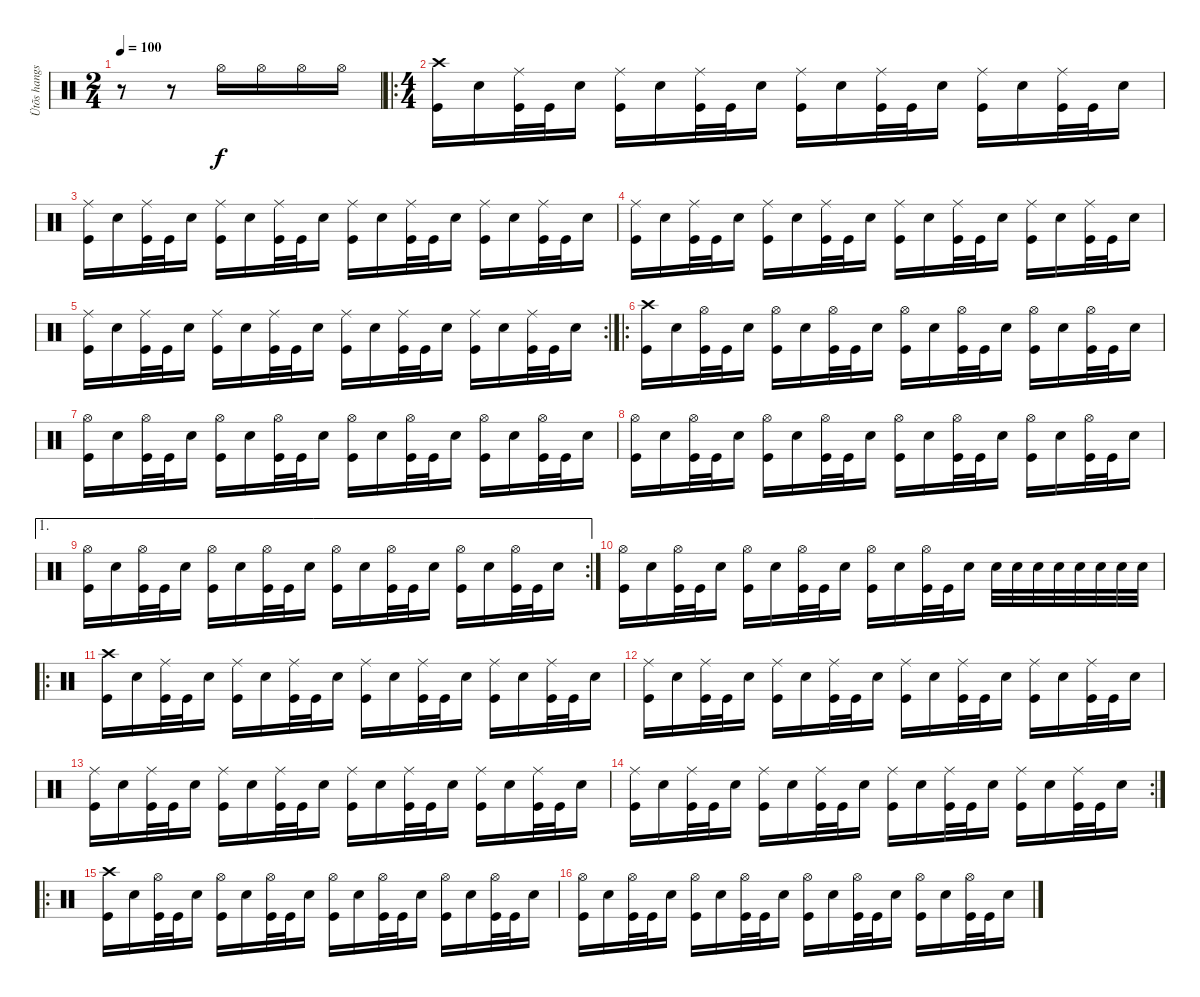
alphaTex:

\track ("Ütõs hangszer" "Ütõs hangs") {instrument percussion}
\staff {score}
\articulation defaults
\ts (2 4)
\tempo 100
\clef neutral
\ks c
r.8{dy f} r.8 "Hi-Hat (open)".16 "Hi-Hat (open)".16 "Hi-Hat (open)".16 "Hi-Hat (open)".16 |
\ro
\ts (4 4)
("Crash high (hit)" "Kick (hit)").16 "Electric Snare (hit)".16 ("Ride (middle)" "Kick (hit)").32 "Kick (hit)".32 "Electric Snare (hit)".16 ("Ride (middle)" "Kick (hit)").16 "Electric Snare (hit)".16 ("Ride (middle)" "Kick (hit)").32 "Kick (hit)".32 "Electric Snare (hit)".16 ("Ride (middle)" "Kick (hit)").16 "Electric Snare (hit)".16 ("Ride (middle)" "Kick (hit)").32 "Kick (hit)".32 "Electric Snare (hit)".16 ("Ride (middle)" "Kick (hit)").16 "Electric Snare (hit)".16 ("Ride (middle)" "Kick (hit)").32 "Kick (hit)".32 "Electric Snare (hit)".16 |
("Ride (middle)" "Kick (hit)").16 "Electric Snare (hit)".16 ("Ride (middle)" "Kick (hit)").32 "Kick (hit)".32 "Electric Snare (hit)".16 ("Ride (middle)" "Kick (hit)").16 "Electric Snare (hit)".16 ("Ride (middle)" "Kick (hit)").32 "Kick (hit)".32 "Electric Snare (hit)".16 ("Ride (middle)" "Kick (hit)").16 "Electric Snare (hit)".16 ("Ride (middle)" "Kick (hit)").32 "Kick (hit)".32 "Electric Snare (hit)".16 ("Ride (middle)" "Kick (hit)").16 "Electric Snare (hit)".16 ("Ride (middle)" "Kick (hit)").32 "Kick (hit)".32 "Electric Snare (hit)".16 |
("Ride (middle)" "Kick (hit)").16 "Electric Snare (hit)".16 ("Ride (middle)" "Kick (hit)").32 "Kick (hit)".32 "Electric Snare (hit)".16 ("Ride (middle)" "Kick (hit)").16 "Electric Snare (hit)".16 ("Ride (middle)" "Kick (hit)").32 "Kick (hit)".32 "Electric Snare (hit)".16 ("Ride (middle)" "Kick (hit)").16 "Electric Snare (hit)".16 ("Ride (middle)" "Kick (hit)").32 "Kick (hit)".32 "Electric Snare (hit)".16 ("Ride (middle)" "Kick (hit)").16 "Electric Snare (hit)".16 ("Ride (middle)" "Kick (hit)").32 "Kick (hit)".32 "Electric Snare (hit)".16 |
\rc 2
("Ride (middle)" "Kick (hit)").16 "Electric Snare (hit)".16 ("Ride (middle)" "Kick (hit)").32 "Kick (hit)".32 "Electric Snare (hit)".16 ("Ride (middle)" "Kick (hit)").16 "Electric Snare (hit)".16 ("Ride (middle)" "Kick (hit)").32 "Kick (hit)".32 "Electric Snare (hit)".16 ("Ride (middle)" "Kick (hit)").16 "Electric Snare (hit)".16 ("Ride (middle)" "Kick (hit)").32 "Kick (hit)".32 "Electric Snare (hit)".16 ("Ride (middle)" "Kick (hit)").16 "Electric Snare (hit)".16 ("Ride (middle)" "Kick (hit)").32 "Kick (hit)".32 "Electric Snare (hit)".16 |
\ro
("Crash high (hit)" "Kick (hit)").16 "Electric Snare (hit)".16 ("Hi-Hat (open)" "Kick (hit)").32 "Kick (hit)".32 "Electric Snare (hit)".16 ("Hi-Hat (open)" "Kick (hit)").16 "Electric Snare (hit)".16 ("Hi-Hat (open)" "Kick (hit)").32 "Kick (hit)".32 "Electric Snare (hit)".16 ("Hi-Hat (open)" "Kick (hit)").16 "Electric Snare (hit)".16 ("Hi-Hat (open)" "Kick (hit)").32 "Kick (hit)".32 "Electric Snare (hit)".16 ("Hi-Hat (open)" "Kick (hit)").16 "Electric Snare (hit)".16 ("Hi-Hat (open)" "Kick (hit)").32 "Kick (hit)".32 "Electric Snare (hit)".16 |
("Hi-Hat (open)" "Kick (hit)").16 "Electric Snare (hit)".16 ("Hi-Hat (open)" "Kick (hit)").32 "Kick (hit)".32 "Electric Snare (hit)".16 ("Hi-Hat (open)" "Kick (hit)").16 "Electric Snare (hit)".16 ("Hi-Hat (open)" "Kick (hit)").32 "Kick (hit)".32 "Electric Snare (hit)".16 ("Hi-Hat (open)" "Kick (hit)").16 "Electric Snare (hit)".16 ("Hi-Hat (open)" "Kick (hit)").32 "Kick (hit)".32 "Electric Snare (hit)".16 ("Hi-Hat (open)" "Kick (hit)").16 "Electric Snare (hit)".16 ("Hi-Hat (open)" "Kick (hit)").32 "Kick (hit)".32 "Electric Snare (hit)".16 |
("Hi-Hat (open)" "Kick (hit)").16 "Electric Snare (hit)".16 ("Hi-Hat (open)" "Kick (hit)").32 "Kick (hit)".32 "Electric Snare (hit)".16 ("Hi-Hat (open)" "Kick (hit)").16 "Electric Snare (hit)".16 ("Hi-Hat (open)" "Kick (hit)").32 "Kick (hit)".32 "Electric Snare (hit)".16 ("Hi-Hat (open)" "Kick (hit)").16 "Electric Snare (hit)".16 ("Hi-Hat (open)" "Kick (hit)").32 "Kick (hit)".32 "Electric Snare (hit)".16 ("Hi-Hat (open)" "Kick (hit)").16 "Electric Snare (hit)".16 ("Hi-Hat (open)" "Kick (hit)").32 "Kick (hit)".32 "Electric Snare (hit)".16 |
\ae 1
\rc 2
("Hi-Hat (open)" "Kick (hit)").16 "Electric Snare (hit)".16 ("Hi-Hat (open)" "Kick (hit)").32 "Kick (hit)".32 "Electric Snare (hit)".16 ("Hi-Hat (open)" "Kick (hit)").16 "Electric Snare (hit)".16 ("Hi-Hat (open)" "Kick (hit)").32 "Kick (hit)".32 "Electric Snare (hit)".16 ("Hi-Hat (open)" "Kick (hit)").16 "Electric Snare (hit)".16 ("Hi-Hat (open)" "Kick (hit)").32 "Kick (hit)".32 "Electric Snare (hit)".16 ("Hi-Hat (open)" "Kick (hit)").16 "Electric Snare (hit)".16 ("Hi-Hat (open)" "Kick (hit)").32 "Kick (hit)".32 "Electric Snare (hit)".16 |
("Hi-Hat (open)" "Kick (hit)").16 "Electric Snare (hit)".16 ("Hi-Hat (open)" "Kick (hit)").32 "Kick (hit)".32 "Electric Snare (hit)".16 ("Hi-Hat (open)" "Kick (hit)").16 "Electric Snare (hit)".16 ("Hi-Hat (open)" "Kick (hit)").32 "Kick (hit)".32 "Electric Snare (hit)".16 ("Hi-Hat (open)" "Kick (hit)").16 "Electric Snare (hit)".16 ("Hi-Hat (open)" "Kick (hit)").32 "Kick (hit)".32 "Electric Snare (hit)".16 "Electric Snare (hit)".32 "Electric Snare (hit)".32 "Electric Snare (hit)".32 "Electric Snare (hit)".32 "Electric Snare (hit)".32 "Electric Snare (hit)".32 "Electric Snare (hit)".32 "Electric Snare (hit)".32 |
\ro
("Crash high (hit)" "Kick (hit)").16 "Electric Snare (hit)".16 ("Ride (middle)" "Kick (hit)").32 "Kick (hit)".32 "Electric Snare (hit)".16 ("Ride (middle)" "Kick (hit)").16 "Electric Snare (hit)".16 ("Ride (middle)" "Kick (hit)").32 "Kick (hit)".32 "Electric Snare (hit)".16 ("Ride (middle)" "Kick (hit)").16 "Electric Snare (hit)".16 ("Ride (middle)" "Kick (hit)").32 "Kick (hit)".32 "Electric Snare (hit)".16 ("Ride (middle)" "Kick (hit)").16 "Electric Snare (hit)".16 ("Ride (middle)" "Kick (hit)").32 "Kick (hit)".32 "Electric Snare (hit)".16 |
("Ride (middle)" "Kick (hit)").16 "Electric Snare (hit)".16 ("Ride (middle)" "Kick (hit)").32 "Kick (hit)".32 "Electric Snare (hit)".16 ("Ride (middle)" "Kick (hit)").16 "Electric Snare (hit)".16 ("Ride (middle)" "Kick (hit)").32 "Kick (hit)".32 "Electric Snare (hit)".16 ("Ride (middle)" "Kick (hit)").16 "Electric Snare (hit)".16 ("Ride (middle)" "Kick (hit)").32 "Kick (hit)".32 "Electric Snare (hit)".16 ("Ride (middle)" "Kick (hit)").16 "Electric Snare (hit)".16 ("Ride (middle)" "Kick (hit)").32 "Kick (hit)".32 "Electric Snare (hit)".16 |
("Ride (middle)" "Kick (hit)").16 "Electric Snare (hit)".16 ("Ride (middle)" "Kick (hit)").32 "Kick (hit)".32 "Electric Snare (hit)".16 ("Ride (middle)" "Kick (hit)").16 "Electric Snare (hit)".16 ("Ride (middle)" "Kick (hit)").32 "Kick (hit)".32 "Electric Snare (hit)".16 ("Ride (middle)" "Kick (hit)").16 "Electric Snare (hit)".16 ("Ride (middle)" "Kick (hit)").32 "Kick (hit)".32 "Electric Snare (hit)".16 ("Ride (middle)" "Kick (hit)").16 "Electric Snare (hit)".16 ("Ride (middle)" "Kick (hit)").32 "Kick (hit)".32 "Electric Snare (hit)".16 |
\rc 2
("Ride (middle)" "Kick (hit)").16 "Electric Snare (hit)".16 ("Ride (middle)" "Kick (hit)").32 "Kick (hit)".32 "Electric Snare (hit)".16 ("Ride (middle)" "Kick (hit)").16 "Electric Snare (hit)".16 ("Ride (middle)" "Kick (hit)").32 "Kick (hit)".32 "Electric Snare (hit)".16 ("Ride (middle)" "Kick (hit)").16 "Electric Snare (hit)".16 ("Ride (middle)" "Kick (hit)").32 "Kick (hit)".32 "Electric Snare (hit)".16 ("Ride (middle)" "Kick (hit)").16 "Electric Snare (hit)".16 ("Ride (middle)" "Kick (hit)").32 "Kick (hit)".32 "Electric Snare (hit)".16 |
\ro
("Crash high (hit)" "Kick (hit)").16 "Electric Snare (hit)".16 ("Hi-Hat (open)" "Kick (hit)").32 "Kick (hit)".32 "Electric Snare (hit)".16 ("Hi-Hat (open)" "Kick (hit)").16 "Electric Snare (hit)".16 ("Hi-Hat (open)" "Kick (hit)").32 "Kick (hit)".32 "Electric Snare (hit)".16 ("Hi-Hat (open)" "Kick (hit)").16 "Electric Snare (hit)".16 ("Hi-Hat (open)" "Kick (hit)").32 "Kick (hit)".32 "Electric Snare (hit)".16 ("Hi-Hat (open)" "Kick (hit)").16 "Electric Snare (hit)".16 ("Hi-Hat (open)" "Kick (hit)").32 "Kick (hit)".32 "Electric Snare (hit)".16 |
("Hi-Hat (open)" "Kick (hit)").16 "Electric Snare (hit)".16 ("Hi-Hat (open)" "Kick (hit)").32 "Kick (hit)".32 "Electric Snare (hit)".16 ("Hi-Hat (open)" "Kick (hit)").16 "Electric Snare (hit)".16 ("Hi-Hat (open)" "Kick (hit)").32 "Kick (hit)".32 "Electric Snare (hit)".16 ("Hi-Hat (open)" "Kick (hit)").16 "Electric Snare (hit)".16 ("Hi-Hat (open)" "Kick (hit)").32 "Kick (hit)".32 "Electric Snare (hit)".16 ("Hi-Hat (open)" "Kick (hit)").16 "Electric Snare (hit)".16 ("Hi-Hat (open)" "Kick (hit)").32 "Kick (hit)".32 "Electric Snare (hit)".16
